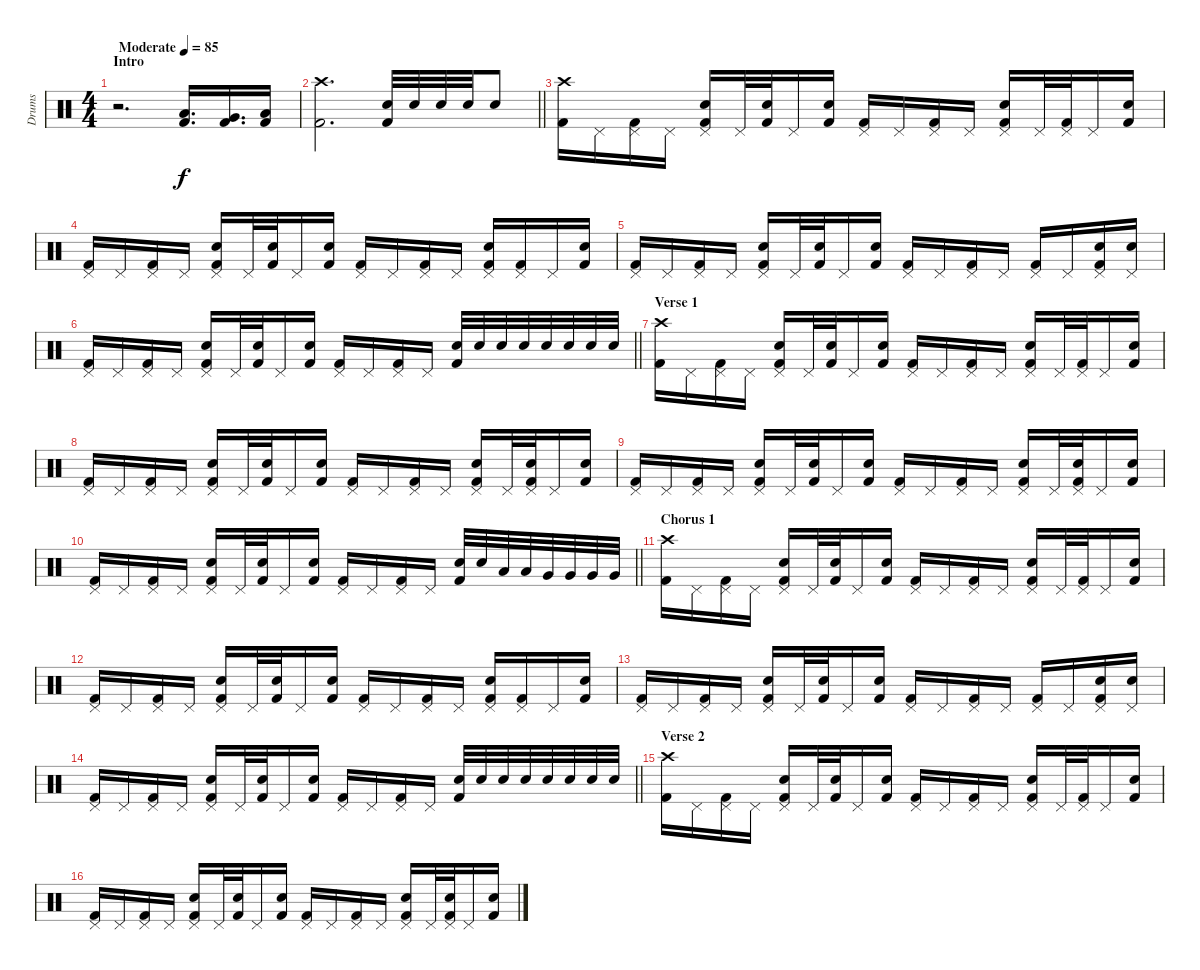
\track ("Drums" "Drums") {instrument percussion}
\staff {score}
\articulation defaults
\ts (4 4)
\section ("" "Intro")
\tempo (85 "Moderate")
\clef neutral
\ks c
r.2{d dy f} ("Kick (hit) 2" "Low Floor Tom (hit)").16{d} ("Kick (hit) 2" "Very Low Tom (hit)").16{d} ("Kick (hit) 2" "Low Floor Tom (hit)").16 |
\barLineRight lightlight
("Kick (hit) 2" "Crash high (hit)").2{d} ("Kick (hit) 2" "Snare (hit) 2").32 "Snare (hit) 2".32 "Snare (hit) 2".32 "Snare (hit) 2".32 "Snare (hit) 2".8 |
("Kick (hit) 2" "Crash high (hit)").16 "Pedal Hi-Hat (hit)".16 ("Kick (hit) 2" "Pedal Hi-Hat (hit)").16 "Pedal Hi-Hat (hit)".16 ("Kick (hit) 2" "Snare (hit) 2" "Pedal Hi-Hat (hit)").16 "Pedal Hi-Hat (hit)".32 ("Kick (hit) 2" "Snare (hit) 2").32 "Pedal Hi-Hat (hit)".16 ("Kick (hit) 2" "Snare (hit) 2").16 ("Kick (hit) 2" "Pedal Hi-Hat (hit)").16 "Pedal Hi-Hat (hit)".16 ("Kick (hit) 2" "Pedal Hi-Hat (hit)").16 "Pedal Hi-Hat (hit)".16 ("Kick (hit) 2" "Snare (hit) 2" "Pedal Hi-Hat (hit)").16 "Pedal Hi-Hat (hit)".32 ("Kick (hit) 2" "Pedal Hi-Hat (hit)").32 "Pedal Hi-Hat (hit)".16 ("Kick (hit) 2" "Snare (hit) 2").16 |
("Kick (hit) 2" "Pedal Hi-Hat (hit)").16 "Pedal Hi-Hat (hit)".16 ("Kick (hit) 2" "Pedal Hi-Hat (hit)").16 "Pedal Hi-Hat (hit)".16 ("Kick (hit) 2" "Snare (hit) 2" "Pedal Hi-Hat (hit)").16 "Pedal Hi-Hat (hit)".32 ("Kick (hit) 2" "Snare (hit) 2").32 "Pedal Hi-Hat (hit)".16 ("Kick (hit) 2" "Snare (hit) 2").16 ("Kick (hit) 2" "Pedal Hi-Hat (hit)").16 "Pedal Hi-Hat (hit)".16 ("Kick (hit) 2" "Pedal Hi-Hat (hit)").16 "Pedal Hi-Hat (hit)".16 ("Kick (hit) 2" "Snare (hit) 2" "Pedal Hi-Hat (hit)").16 ("Kick (hit) 2" "Pedal Hi-Hat (hit)").16 "Pedal Hi-Hat (hit)".16 ("Kick (hit) 2" "Snare (hit) 2").16 |
("Kick (hit) 2" "Pedal Hi-Hat (hit)").16 "Pedal Hi-Hat (hit)".16 ("Kick (hit) 2" "Pedal Hi-Hat (hit)").16 "Pedal Hi-Hat (hit)".16 ("Kick (hit) 2" "Snare (hit) 2" "Pedal Hi-Hat (hit)").16 "Pedal Hi-Hat (hit)".32 ("Kick (hit) 2" "Snare (hit) 2").32 "Pedal Hi-Hat (hit)".16 ("Kick (hit) 2" "Snare (hit) 2").16 ("Kick (hit) 2" "Pedal Hi-Hat (hit)").16 "Pedal Hi-Hat (hit)".16 ("Kick (hit) 2" "Pedal Hi-Hat (hit)").16 "Pedal Hi-Hat (hit)".16 ("Kick (hit) 2" "Pedal Hi-Hat (hit)").16 "Pedal Hi-Hat (hit)".16 ("Kick (hit) 2" "Snare (hit) 2" "Pedal Hi-Hat (hit)").16 ("Snare (hit) 2" "Pedal Hi-Hat (hit)").16 |
\barLineRight lightlight
("Kick (hit) 2" "Pedal Hi-Hat (hit)").16 "Pedal Hi-Hat (hit)".16 ("Kick (hit) 2" "Pedal Hi-Hat (hit)").16 "Pedal Hi-Hat (hit)".16 ("Kick (hit) 2" "Snare (hit) 2" "Pedal Hi-Hat (hit)").16 "Pedal Hi-Hat (hit)".32 ("Kick (hit) 2" "Snare (hit) 2").32 "Pedal Hi-Hat (hit)".16 ("Kick (hit) 2" "Snare (hit) 2").16 ("Kick (hit) 2" "Pedal Hi-Hat (hit)").16 "Pedal Hi-Hat (hit)".16 ("Kick (hit) 2" "Pedal Hi-Hat (hit)").16 "Pedal Hi-Hat (hit)".16 ("Kick (hit) 2" "Snare (hit) 2").32 "Snare (hit) 2".32 "Snare (hit) 2".32 "Snare (hit) 2".32 "Snare (hit) 2".32 "Snare (hit) 2".32 "Snare (hit) 2".32 "Snare (hit) 2".32 |
\section ("" "Verse 1")
("Kick (hit) 2" "Crash high (hit)").16 "Pedal Hi-Hat (hit)".16 ("Kick (hit) 2" "Pedal Hi-Hat (hit)").16 "Pedal Hi-Hat (hit)".16 ("Kick (hit) 2" "Snare (hit) 2" "Pedal Hi-Hat (hit)").16 "Pedal Hi-Hat (hit)".32 ("Kick (hit) 2" "Snare (hit) 2").32 "Pedal Hi-Hat (hit)".16 ("Kick (hit) 2" "Snare (hit) 2").16 ("Kick (hit) 2" "Pedal Hi-Hat (hit)").16 "Pedal Hi-Hat (hit)".16 ("Kick (hit) 2" "Pedal Hi-Hat (hit)").16 "Pedal Hi-Hat (hit)".16 ("Kick (hit) 2" "Snare (hit) 2" "Pedal Hi-Hat (hit)").16 "Pedal Hi-Hat (hit)".32 ("Kick (hit) 2" "Pedal Hi-Hat (hit)").32 "Pedal Hi-Hat (hit)".16 ("Kick (hit) 2" "Snare (hit) 2").16 |
("Kick (hit) 2" "Pedal Hi-Hat (hit)").16 "Pedal Hi-Hat (hit)".16 ("Kick (hit) 2" "Pedal Hi-Hat (hit)").16 "Pedal Hi-Hat (hit)".16 ("Kick (hit) 2" "Snare (hit) 2" "Pedal Hi-Hat (hit)").16 "Pedal Hi-Hat (hit)".32 ("Kick (hit) 2" "Snare (hit) 2").32 "Pedal Hi-Hat (hit)".16 ("Kick (hit) 2" "Snare (hit) 2").16 ("Kick (hit) 2" "Pedal Hi-Hat (hit)").16 "Pedal Hi-Hat (hit)".16 ("Kick (hit) 2" "Pedal Hi-Hat (hit)").16 "Pedal Hi-Hat (hit)".16 ("Kick (hit) 2" "Snare (hit) 2" "Pedal Hi-Hat (hit)").16 "Pedal Hi-Hat (hit)".32 ("Kick (hit) 2" "Snare (hit) 2" "Pedal Hi-Hat (hit)").32 "Pedal Hi-Hat (hit)".16 ("Kick (hit) 2" "Snare (hit) 2").16 |
("Kick (hit) 2" "Pedal Hi-Hat (hit)").16 "Pedal Hi-Hat (hit)".16 ("Kick (hit) 2" "Pedal Hi-Hat (hit)").16 "Pedal Hi-Hat (hit)".16 ("Kick (hit) 2" "Snare (hit) 2" "Pedal Hi-Hat (hit)").16 "Pedal Hi-Hat (hit)".32 ("Kick (hit) 2" "Snare (hit) 2").32 "Pedal Hi-Hat (hit)".16 ("Kick (hit) 2" "Snare (hit) 2").16 ("Kick (hit) 2" "Pedal Hi-Hat (hit)").16 "Pedal Hi-Hat (hit)".16 ("Kick (hit) 2" "Pedal Hi-Hat (hit)").16 "Pedal Hi-Hat (hit)".16 ("Kick (hit) 2" "Snare (hit) 2" "Pedal Hi-Hat (hit)").16 "Pedal Hi-Hat (hit)".32 ("Kick (hit) 2" "Snare (hit) 2" "Pedal Hi-Hat (hit)").32 "Pedal Hi-Hat (hit)".16 ("Kick (hit) 2" "Snare (hit) 2").16 |
\barLineRight lightlight
("Kick (hit) 2" "Pedal Hi-Hat (hit)").16 "Pedal Hi-Hat (hit)".16 ("Kick (hit) 2" "Pedal Hi-Hat (hit)").16 "Pedal Hi-Hat (hit)".16 ("Kick (hit) 2" "Snare (hit) 2" "Pedal Hi-Hat (hit)").16 "Pedal Hi-Hat (hit)".32 ("Kick (hit) 2" "Snare (hit) 2").32 "Pedal Hi-Hat (hit)".16 ("Kick (hit) 2" "Snare (hit) 2").16 ("Kick (hit) 2" "Pedal Hi-Hat (hit)").16 "Pedal Hi-Hat (hit)".16 ("Kick (hit) 2" "Pedal Hi-Hat (hit)").16 "Pedal Hi-Hat (hit)".16 ("Kick (hit) 2" "Snare (hit) 2").32 "Snare (hit) 2".32 "Low Tom (hit)".32 "Low Tom (hit)".32 "Very Low Tom (hit)".32 "Very Low Tom (hit)".32 "Very Low Tom (hit)".32 "Very Low Tom (hit)".32 |
\section ("" "Chorus 1")
("Kick (hit) 2" "Crash high (hit)").16 "Pedal Hi-Hat (hit)".16 ("Kick (hit) 2" "Pedal Hi-Hat (hit)").16 "Pedal Hi-Hat (hit)".16 ("Kick (hit) 2" "Snare (hit) 2" "Pedal Hi-Hat (hit)").16 "Pedal Hi-Hat (hit)".32 ("Kick (hit) 2" "Snare (hit) 2").32 "Pedal Hi-Hat (hit)".16 ("Kick (hit) 2" "Snare (hit) 2").16 ("Kick (hit) 2" "Pedal Hi-Hat (hit)").16 "Pedal Hi-Hat (hit)".16 ("Kick (hit) 2" "Pedal Hi-Hat (hit)").16 "Pedal Hi-Hat (hit)".16 ("Kick (hit) 2" "Snare (hit) 2" "Pedal Hi-Hat (hit)").16 "Pedal Hi-Hat (hit)".32 ("Kick (hit) 2" "Pedal Hi-Hat (hit)").32 "Pedal Hi-Hat (hit)".16 ("Kick (hit) 2" "Snare (hit) 2").16 |
("Kick (hit) 2" "Pedal Hi-Hat (hit)").16 "Pedal Hi-Hat (hit)".16 ("Kick (hit) 2" "Pedal Hi-Hat (hit)").16 "Pedal Hi-Hat (hit)".16 ("Kick (hit) 2" "Snare (hit) 2" "Pedal Hi-Hat (hit)").16 "Pedal Hi-Hat (hit)".32 ("Kick (hit) 2" "Snare (hit) 2").32 "Pedal Hi-Hat (hit)".16 ("Kick (hit) 2" "Snare (hit) 2").16 ("Kick (hit) 2" "Pedal Hi-Hat (hit)").16 "Pedal Hi-Hat (hit)".16 ("Kick (hit) 2" "Pedal Hi-Hat (hit)").16 "Pedal Hi-Hat (hit)".16 ("Kick (hit) 2" "Snare (hit) 2" "Pedal Hi-Hat (hit)").16 ("Kick (hit) 2" "Pedal Hi-Hat (hit)").16 "Pedal Hi-Hat (hit)".16 ("Kick (hit) 2" "Snare (hit) 2").16 |
("Kick (hit) 2" "Pedal Hi-Hat (hit)").16 "Pedal Hi-Hat (hit)".16 ("Kick (hit) 2" "Pedal Hi-Hat (hit)").16 "Pedal Hi-Hat (hit)".16 ("Kick (hit) 2" "Snare (hit) 2" "Pedal Hi-Hat (hit)").16 "Pedal Hi-Hat (hit)".32 ("Kick (hit) 2" "Snare (hit) 2").32 "Pedal Hi-Hat (hit)".16 ("Kick (hit) 2" "Snare (hit) 2").16 ("Kick (hit) 2" "Pedal Hi-Hat (hit)").16 "Pedal Hi-Hat (hit)".16 ("Kick (hit) 2" "Pedal Hi-Hat (hit)").16 "Pedal Hi-Hat (hit)".16 ("Kick (hit) 2" "Pedal Hi-Hat (hit)").16 "Pedal Hi-Hat (hit)".16 ("Kick (hit) 2" "Snare (hit) 2" "Pedal Hi-Hat (hit)").16 ("Snare (hit) 2" "Pedal Hi-Hat (hit)").16 |
\barLineRight lightlight
("Kick (hit) 2" "Pedal Hi-Hat (hit)").16 "Pedal Hi-Hat (hit)".16 ("Kick (hit) 2" "Pedal Hi-Hat (hit)").16 "Pedal Hi-Hat (hit)".16 ("Kick (hit) 2" "Snare (hit) 2" "Pedal Hi-Hat (hit)").16 "Pedal Hi-Hat (hit)".32 ("Kick (hit) 2" "Snare (hit) 2").32 "Pedal Hi-Hat (hit)".16 ("Kick (hit) 2" "Snare (hit) 2").16 ("Kick (hit) 2" "Pedal Hi-Hat (hit)").16 "Pedal Hi-Hat (hit)".16 ("Kick (hit) 2" "Pedal Hi-Hat (hit)").16 "Pedal Hi-Hat (hit)".16 ("Kick (hit) 2" "Snare (hit) 2").32 "Snare (hit) 2".32 "Snare (hit) 2".32 "Snare (hit) 2".32 "Snare (hit) 2".32 "Snare (hit) 2".32 "Snare (hit) 2".32 "Snare (hit) 2".32 |
\section ("" "Verse 2")
("Kick (hit) 2" "Crash high (hit)").16 "Pedal Hi-Hat (hit)".16 ("Kick (hit) 2" "Pedal Hi-Hat (hit)").16 "Pedal Hi-Hat (hit)".16 ("Kick (hit) 2" "Snare (hit) 2" "Pedal Hi-Hat (hit)").16 "Pedal Hi-Hat (hit)".32 ("Kick (hit) 2" "Snare (hit) 2").32 "Pedal Hi-Hat (hit)".16 ("Kick (hit) 2" "Snare (hit) 2").16 ("Kick (hit) 2" "Pedal Hi-Hat (hit)").16 "Pedal Hi-Hat (hit)".16 ("Kick (hit) 2" "Pedal Hi-Hat (hit)").16 "Pedal Hi-Hat (hit)".16 ("Kick (hit) 2" "Snare (hit) 2" "Pedal Hi-Hat (hit)").16 "Pedal Hi-Hat (hit)".32 ("Kick (hit) 2" "Pedal Hi-Hat (hit)").32 "Pedal Hi-Hat (hit)".16 ("Kick (hit) 2" "Snare (hit) 2").16 |
("Kick (hit) 2" "Pedal Hi-Hat (hit)").16 "Pedal Hi-Hat (hit)".16 ("Kick (hit) 2" "Pedal Hi-Hat (hit)").16 "Pedal Hi-Hat (hit)".16 ("Kick (hit) 2" "Snare (hit) 2" "Pedal Hi-Hat (hit)").16 "Pedal Hi-Hat (hit)".32 ("Kick (hit) 2" "Snare (hit) 2").32 "Pedal Hi-Hat (hit)".16 ("Kick (hit) 2" "Snare (hit) 2").16 ("Kick (hit) 2" "Pedal Hi-Hat (hit)").16 "Pedal Hi-Hat (hit)".16 ("Kick (hit) 2" "Pedal Hi-Hat (hit)").16 "Pedal Hi-Hat (hit)".16 ("Kick (hit) 2" "Snare (hit) 2" "Pedal Hi-Hat (hit)").16 "Pedal Hi-Hat (hit)".32 ("Kick (hit) 2" "Snare (hit) 2" "Pedal Hi-Hat (hit)").32 "Pedal Hi-Hat (hit)".16 ("Kick (hit) 2" "Snare (hit) 2").16
